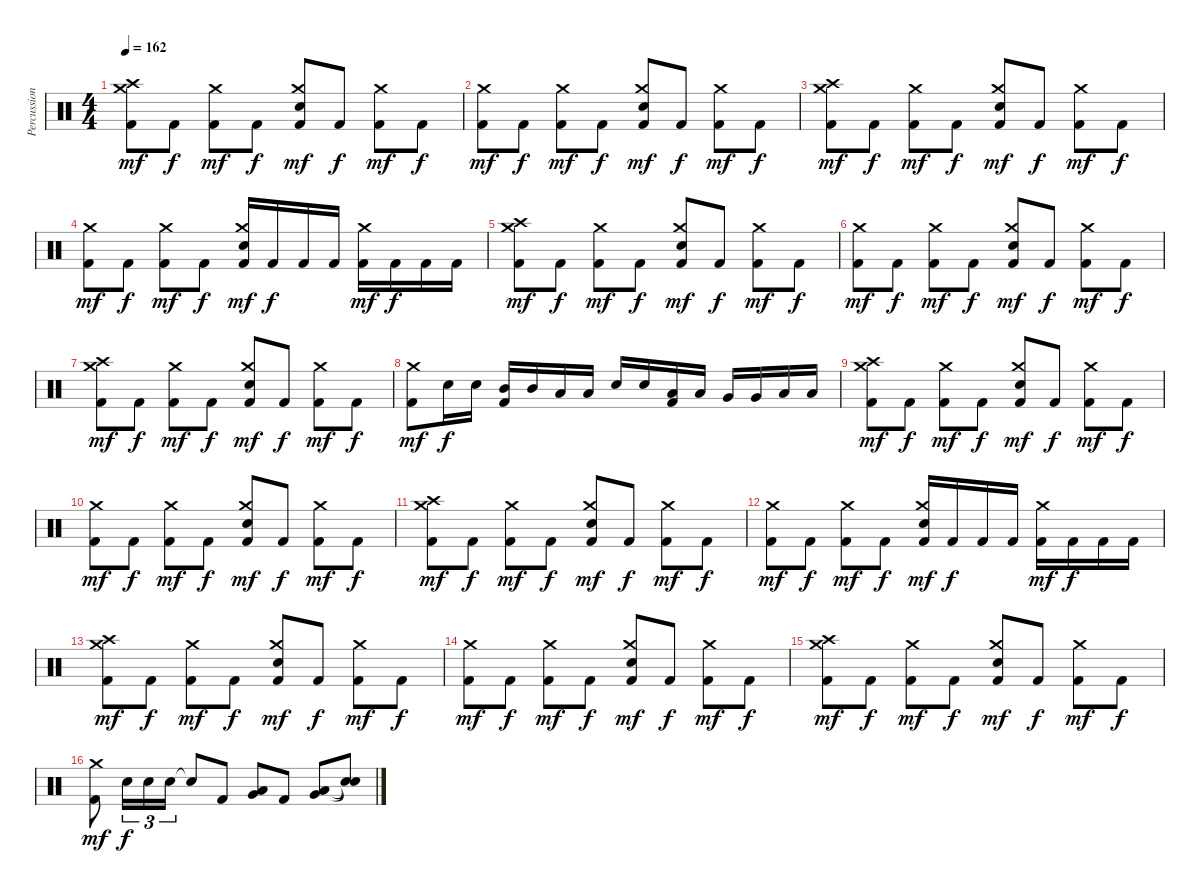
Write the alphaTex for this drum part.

\track ("Percussion" "Percussion") {instrument percussion}
\staff {score}
\articulation defaults
\ts (4 4)
\tempo 162
\clef neutral
\ks c
("Kick (hit) 2" "Crash high (hit)" "Crash medium (hit)").8{dy mf} "Kick (hit) 2".8{dy f} ("Kick (hit) 2" "Crash medium (hit)").8{dy mf} "Kick (hit) 2".8{dy f} ("Kick (hit) 2" "Snare (hit) 2" "Crash medium (hit)").8{dy mf} "Kick (hit) 2".8{dy f} ("Kick (hit) 2" "Crash medium (hit)").8{dy mf} "Kick (hit) 2".8{dy f} |
("Kick (hit) 2" "Crash medium (hit)").8{dy mf} "Kick (hit) 2".8{dy f} ("Kick (hit) 2" "Crash medium (hit)").8{dy mf} "Kick (hit) 2".8{dy f} ("Kick (hit) 2" "Snare (hit) 2" "Crash medium (hit)").8{dy mf} "Kick (hit) 2".8{dy f} ("Kick (hit) 2" "Crash medium (hit)").8{dy mf} "Kick (hit) 2".8{dy f} |
("Kick (hit) 2" "Crash high (hit)" "Crash medium (hit)").8{dy mf} "Kick (hit) 2".8{dy f} ("Kick (hit) 2" "Crash medium (hit)").8{dy mf} "Kick (hit) 2".8{dy f} ("Kick (hit) 2" "Snare (hit) 2" "Crash medium (hit)").8{dy mf} "Kick (hit) 2".8{dy f} ("Kick (hit) 2" "Crash medium (hit)").8{dy mf} "Kick (hit) 2".8{dy f} |
("Kick (hit) 2" "Crash medium (hit)").8{dy mf} "Kick (hit) 2".8{dy f} ("Kick (hit) 2" "Crash medium (hit)").8{dy mf} "Kick (hit) 2".8{dy f} ("Kick (hit) 2" "Snare (hit) 2" "Crash medium (hit)").16{dy mf} "Kick (hit) 2".16{dy f} "Kick (hit) 2".16 "Kick (hit) 2".16 ("Kick (hit) 2" "Crash medium (hit)").16{dy mf} "Kick (hit) 2".16{dy f} "Kick (hit) 2".16 "Kick (hit) 2".16 |
("Kick (hit) 2" "Crash high (hit)" "Crash medium (hit)").8{dy mf} "Kick (hit) 2".8{dy f} ("Kick (hit) 2" "Crash medium (hit)").8{dy mf} "Kick (hit) 2".8{dy f} ("Kick (hit) 2" "Snare (hit) 2" "Crash medium (hit)").8{dy mf} "Kick (hit) 2".8{dy f} ("Kick (hit) 2" "Crash medium (hit)").8{dy mf} "Kick (hit) 2".8{dy f} |
("Kick (hit) 2" "Crash medium (hit)").8{dy mf} "Kick (hit) 2".8{dy f} ("Kick (hit) 2" "Crash medium (hit)").8{dy mf} "Kick (hit) 2".8{dy f} ("Kick (hit) 2" "Snare (hit) 2" "Crash medium (hit)").8{dy mf} "Kick (hit) 2".8{dy f} ("Kick (hit) 2" "Crash medium (hit)").8{dy mf} "Kick (hit) 2".8{dy f} |
("Kick (hit) 2" "Crash high (hit)" "Crash medium (hit)").8{dy mf} "Kick (hit) 2".8{dy f} ("Kick (hit) 2" "Crash medium (hit)").8{dy mf} "Kick (hit) 2".8{dy f} ("Kick (hit) 2" "Snare (hit) 2" "Crash medium (hit)").8{dy mf} "Kick (hit) 2".8{dy f} ("Kick (hit) 2" "Crash medium (hit)").8{dy mf} "Kick (hit) 2".8{dy f} |
("Kick (hit) 2" "Crash medium (hit)").8{dy mf} "Snare (hit) 2".16{dy f} "Snare (hit) 2".16 ("Kick (hit) 2" "Mid Tom (hit)").16 "Mid Tom (hit)".16 "Low Tom (hit)".16 "Low Tom (hit)".16 "Snare (hit) 2".16 "Snare (hit) 2".16 ("Kick (hit) 2" "Low Tom (hit)").16 "Low Tom (hit)".16 "Very Low Tom (hit)".16 "Very Low Tom (hit)".16 "Low Floor Tom (hit)".16 "Low Floor Tom (hit)".16 |
("Kick (hit) 2" "Crash high (hit)" "Crash medium (hit)").8{dy mf} "Kick (hit) 2".8{dy f} ("Kick (hit) 2" "Crash medium (hit)").8{dy mf} "Kick (hit) 2".8{dy f} ("Kick (hit) 2" "Snare (hit) 2" "Crash medium (hit)").8{dy mf} "Kick (hit) 2".8{dy f} ("Kick (hit) 2" "Crash medium (hit)").8{dy mf} "Kick (hit) 2".8{dy f} |
("Kick (hit) 2" "Crash medium (hit)").8{dy mf} "Kick (hit) 2".8{dy f} ("Kick (hit) 2" "Crash medium (hit)").8{dy mf} "Kick (hit) 2".8{dy f} ("Kick (hit) 2" "Snare (hit) 2" "Crash medium (hit)").8{dy mf} "Kick (hit) 2".8{dy f} ("Kick (hit) 2" "Crash medium (hit)").8{dy mf} "Kick (hit) 2".8{dy f} |
("Kick (hit) 2" "Crash high (hit)" "Crash medium (hit)").8{dy mf} "Kick (hit) 2".8{dy f} ("Kick (hit) 2" "Crash medium (hit)").8{dy mf} "Kick (hit) 2".8{dy f} ("Kick (hit) 2" "Snare (hit) 2" "Crash medium (hit)").8{dy mf} "Kick (hit) 2".8{dy f} ("Kick (hit) 2" "Crash medium (hit)").8{dy mf} "Kick (hit) 2".8{dy f} |
("Kick (hit) 2" "Crash medium (hit)").8{dy mf} "Kick (hit) 2".8{dy f} ("Kick (hit) 2" "Crash medium (hit)").8{dy mf} "Kick (hit) 2".8{dy f} ("Kick (hit) 2" "Snare (hit) 2" "Crash medium (hit)").16{dy mf} "Kick (hit) 2".16{dy f} "Kick (hit) 2".16 "Kick (hit) 2".16 ("Kick (hit) 2" "Crash medium (hit)").16{dy mf} "Kick (hit) 2".16{dy f} "Kick (hit) 2".16 "Kick (hit) 2".16 |
("Kick (hit) 2" "Crash high (hit)" "Crash medium (hit)").8{dy mf} "Kick (hit) 2".8{dy f} ("Kick (hit) 2" "Crash medium (hit)").8{dy mf} "Kick (hit) 2".8{dy f} ("Kick (hit) 2" "Snare (hit) 2" "Crash medium (hit)").8{dy mf} "Kick (hit) 2".8{dy f} ("Kick (hit) 2" "Crash medium (hit)").8{dy mf} "Kick (hit) 2".8{dy f} |
("Kick (hit) 2" "Crash medium (hit)").8{dy mf} "Kick (hit) 2".8{dy f} ("Kick (hit) 2" "Crash medium (hit)").8{dy mf} "Kick (hit) 2".8{dy f} ("Kick (hit) 2" "Snare (hit) 2" "Crash medium (hit)").8{dy mf} "Kick (hit) 2".8{dy f} ("Kick (hit) 2" "Crash medium (hit)").8{dy mf} "Kick (hit) 2".8{dy f} |
("Kick (hit) 2" "Crash high (hit)" "Crash medium (hit)").8{dy mf} "Kick (hit) 2".8{dy f} ("Kick (hit) 2" "Crash medium (hit)").8{dy mf} "Kick (hit) 2".8{dy f} ("Kick (hit) 2" "Snare (hit) 2" "Crash medium (hit)").8{dy mf} "Kick (hit) 2".8{dy f} ("Kick (hit) 2" "Crash medium (hit)").8{dy mf} "Kick (hit) 2".8{dy f} |
("Kick (hit) 2" "Crash medium (hit)").8{dy mf} "Snare (hit) 2".16{tu (3 2) dy f} "Snare (hit) 2".16{tu (3 2)} "Snare (hit) 2".16{tu (3 2)} "Snare (hit)"{t}.8 "Kick (hit) 2".8 ("Low Tom (hit)" "Very Low Tom (hit)").8 "Kick (hit) 2".8 ("Very Low Tom (hit)" "Low Floor Tom (hit)").8 ("Snare (hit)"{t} "Snare (hit)"{t}).8
